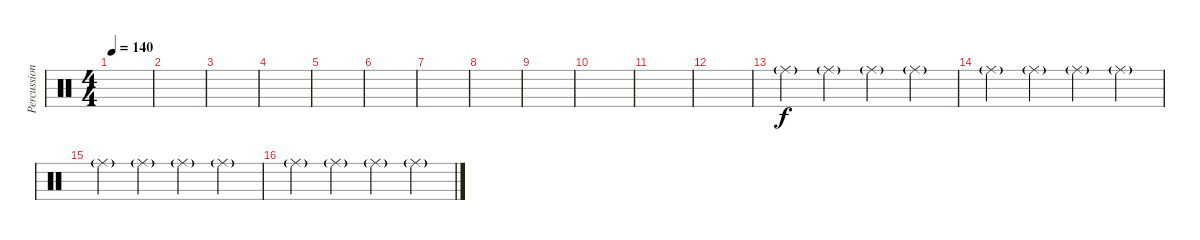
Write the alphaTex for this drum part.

\track ("Percussion" "Percussion") {instrument percussion}
\staff {score}
\articulation defaults
\ts (4 4)
\tempo 140
\clef neutral
\ks c
|
|
|
|
|
|
|
|
|
|
|
|
"Ride (middle)"{g}.4 "Ride (middle)"{g}.4 "Ride (middle)"{g}.4 "Ride (middle)"{g}.4 |
"Ride (middle)"{g}.4 "Ride (middle)"{g}.4 "Ride (middle)"{g}.4 "Ride (middle)"{g}.4 |
"Ride (middle)"{g}.4 "Ride (middle)"{g}.4 "Ride (middle)"{g}.4 "Ride (middle)"{g}.4 |
"Ride (middle)"{g}.4 "Ride (middle)"{g}.4 "Ride (middle)"{g}.4 "Ride (middle)"{g}.4
